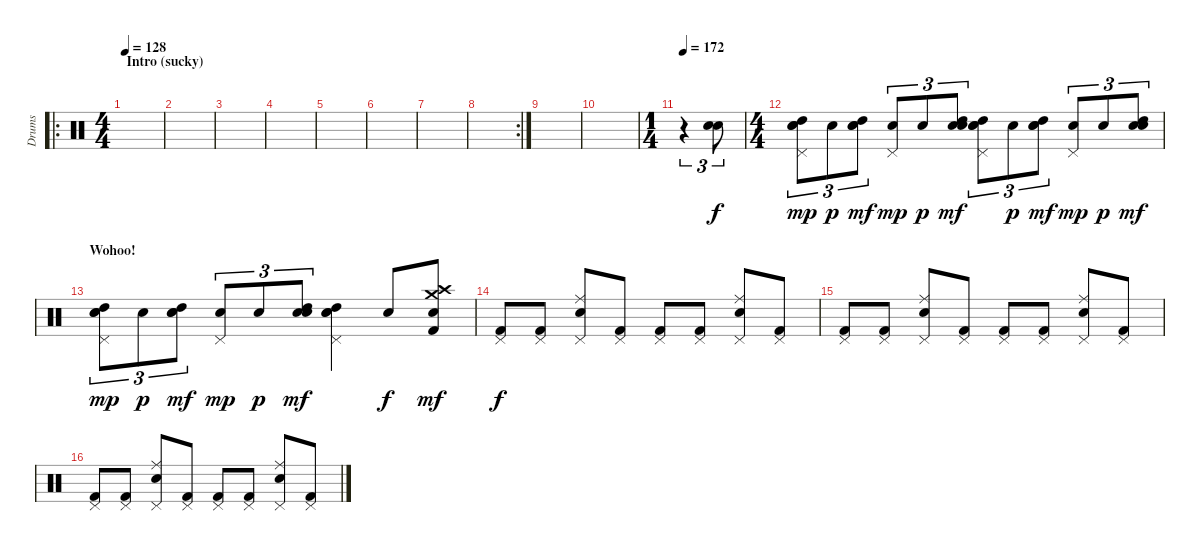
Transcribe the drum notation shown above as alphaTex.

\track ("Drums" "Drums") {instrument percussion}
\staff {score}
\articulation defaults
\ro
\ts (4 4)
\section ("" "Intro (sucky)")
\tempo 128
\clef neutral
\ks c
|
|
|
|
|
|
|
\rc 2
|
|
|
\ts (1 4)
\tempo 172
r.4{tu (3 2)} ("Electric Snare (hit)" "Electric Snare (hit)").8{tu (3 2)} |
\ts (4 4)
("Pedal Hi-Hat (hit)" "Snare (hit) 2" "Electric Snare (hit)" "High Tom (hit)").8{tu (3 2) dy mp} "Snare (hit) 2".8{tu (3 2) dy p} ("Snare (hit) 2" "Electric Snare (hit)" "High Tom (hit)").8{tu (3 2) dy mf} ("Pedal Hi-Hat (hit)" "Snare (hit) 2").8{tu (3 2) dy mp} "Snare (hit) 2".8{tu (3 2) dy p} ("Snare (hit) 2" "Electric Snare (hit)" "High Tom (hit)").8{tu (3 2) dy mf} ("Pedal Hi-Hat (hit)" "Snare (hit) 2" "Electric Snare (hit)" "High Tom (hit)").8{tu (3 2)} "Snare (hit) 2".8{tu (3 2) dy p} ("Snare (hit) 2" "Electric Snare (hit)" "High Tom (hit)").8{tu (3 2) dy mf} ("Pedal Hi-Hat (hit)" "Snare (hit) 2").8{tu (3 2) dy mp} "Snare (hit) 2".8{tu (3 2) dy p} ("Snare (hit) 2" "Electric Snare (hit)" "High Tom (hit)").8{tu (3 2) dy mf} |
\section ("" "Wohoo!")
("Pedal Hi-Hat (hit)" "Snare (hit) 2" "Electric Snare (hit)" "High Tom (hit)").8{tu (3 2) dy mp} "Snare (hit) 2".8{tu (3 2) dy p} ("Snare (hit) 2" "Electric Snare (hit)" "High Tom (hit)").8{tu (3 2) dy mf} ("Pedal Hi-Hat (hit)" "Snare (hit) 2").8{tu (3 2) dy mp} "Snare (hit) 2".8{tu (3 2) dy p} ("Snare (hit) 2" "Electric Snare (hit)" "High Tom (hit)").8{tu (3 2) dy mf} ("Pedal Hi-Hat (hit)" "Snare (hit) 2" "Electric Snare (hit)" "High Tom (hit)").4 "Electric Snare (hit)".8{dy f} ("Crash medium (hit)" "Crash high (hit)" "Snare (hit) 2" "Kick (hit) 2").8{dy mf} |
("Pedal Hi-Hat (hit)" "Kick (hit) 2").8{dy f} ("Pedal Hi-Hat (hit)" "Kick (hit) 2").8 ("Pedal Hi-Hat (hit)" "Ride (middle)" "Electric Snare (hit)").8 ("Pedal Hi-Hat (hit)" "Kick (hit) 2").8 ("Pedal Hi-Hat (hit)" "Kick (hit) 2").8 ("Pedal Hi-Hat (hit)" "Kick (hit) 2").8 ("Pedal Hi-Hat (hit)" "Ride (middle)" "Electric Snare (hit)").8 ("Pedal Hi-Hat (hit)" "Kick (hit) 2").8 |
("Pedal Hi-Hat (hit)" "Kick (hit) 2").8 ("Pedal Hi-Hat (hit)" "Kick (hit) 2").8 ("Pedal Hi-Hat (hit)" "Ride (middle)" "Electric Snare (hit)").8 ("Pedal Hi-Hat (hit)" "Kick (hit) 2").8 ("Pedal Hi-Hat (hit)" "Kick (hit) 2").8 ("Pedal Hi-Hat (hit)" "Kick (hit) 2").8 ("Pedal Hi-Hat (hit)" "Ride (middle)" "Electric Snare (hit)").8 ("Pedal Hi-Hat (hit)" "Kick (hit) 2").8 |
("Pedal Hi-Hat (hit)" "Kick (hit) 2").8 ("Pedal Hi-Hat (hit)" "Kick (hit) 2").8 ("Pedal Hi-Hat (hit)" "Ride (middle)" "Electric Snare (hit)").8 ("Pedal Hi-Hat (hit)" "Kick (hit) 2").8 ("Pedal Hi-Hat (hit)" "Kick (hit) 2").8 ("Pedal Hi-Hat (hit)" "Kick (hit) 2").8 ("Pedal Hi-Hat (hit)" "Ride (middle)" "Electric Snare (hit)").8 ("Pedal Hi-Hat (hit)" "Kick (hit) 2").8
